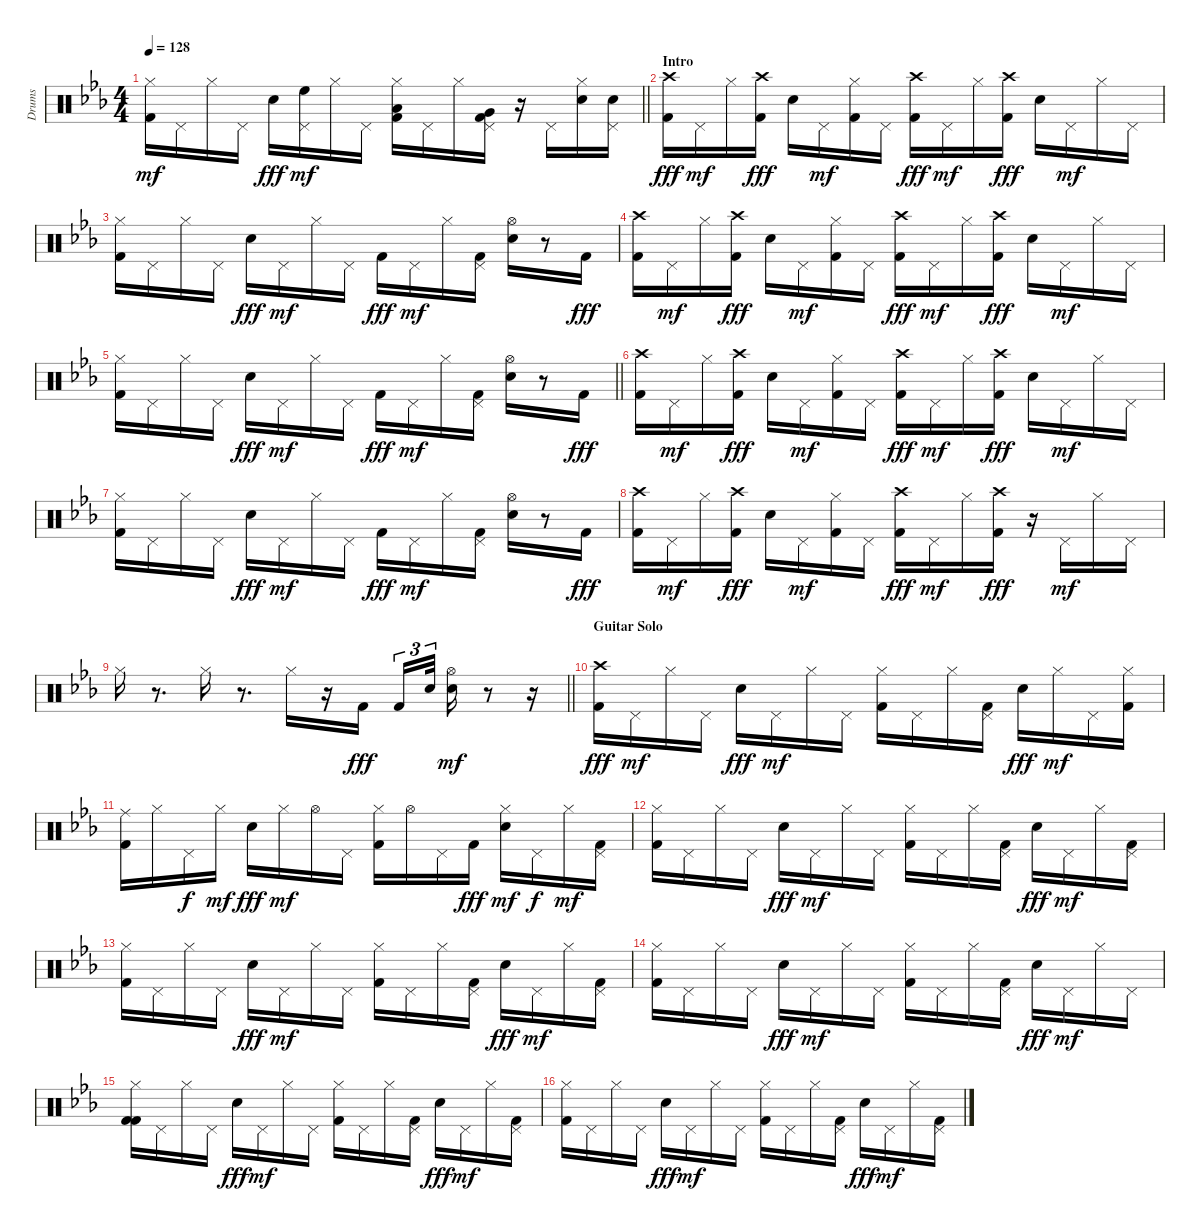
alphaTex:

\track ("Drums" "Drums") {instrument percussion}
\staff {score}
\articulation defaults
\ts (4 4)
\tempo 128
\clef neutral
\barLineRight lightlight
\ks cminor
("Kick (hit) 2" "Hi-Hat (closed)").16{dy mf} "Pedal Hi-Hat (hit)".16 "Hi-Hat (closed)".16 "Pedal Hi-Hat (hit)".16 "Electric Snare (hit)".16{dy fff} ("High Floor Tom (hit)" "Pedal Hi-Hat (hit)").16{dy mf} "Hi-Hat (closed)".16 "Pedal Hi-Hat (hit)".16 ("Kick (hit) 2" "Low Tom (hit)" "Hi-Hat (closed)").16 "Pedal Hi-Hat (hit)".16 "Hi-Hat (closed)".16 ("Very Low Tom (hit)" "Kick (hit) 2" "Pedal Hi-Hat (hit)").16 r.16 "Pedal Hi-Hat (hit)".16 ("Electric Snare (hit)" "Hi-Hat (closed)").16 ("Electric Snare (hit)" "Pedal Hi-Hat (hit)").16 |
\section ("" "Intro")
("Kick (hit) 2" "Crash high (hit)").16{dy fff} "Pedal Hi-Hat (hit)".16{dy mf} "Hi-Hat (closed)".16 ("Kick (hit) 2" "Crash high (hit)").16{dy fff} "Electric Snare (hit)".16 "Pedal Hi-Hat (hit)".16{dy mf} ("Kick (hit) 2" "Hi-Hat (closed)").16 "Pedal Hi-Hat (hit)".16 ("Kick (hit) 2" "Crash high (hit)").16{dy fff} "Pedal Hi-Hat (hit)".16{dy mf} "Hi-Hat (closed)".16 ("Kick (hit) 2" "Crash high (hit)").16{dy fff} "Electric Snare (hit)".16 "Pedal Hi-Hat (hit)".16{dy mf} "Hi-Hat (closed)".16 "Pedal Hi-Hat (hit)".16 |
("Kick (hit) 2" "Hi-Hat (closed)").16 "Pedal Hi-Hat (hit)".16 "Hi-Hat (closed)".16 "Pedal Hi-Hat (hit)".16 "Electric Snare (hit)".16{dy fff} "Pedal Hi-Hat (hit)".16{dy mf} "Hi-Hat (closed)".16 "Pedal Hi-Hat (hit)".16 "Kick (hit) 2".16{dy fff} "Pedal Hi-Hat (hit)".16{dy mf} "Hi-Hat (closed)".16 ("Kick (hit) 2" "Pedal Hi-Hat (hit)").16 ("Electric Snare (hit)" "Hi-Hat (open)").16 r.8 "Kick (hit) 2".16{dy fff} |
("Kick (hit) 2" "Crash high (hit)").16 "Pedal Hi-Hat (hit)".16{dy mf} "Hi-Hat (closed)".16 ("Kick (hit) 2" "Crash high (hit)").16{dy fff} "Electric Snare (hit)".16 "Pedal Hi-Hat (hit)".16{dy mf} ("Kick (hit) 2" "Hi-Hat (closed)").16 "Pedal Hi-Hat (hit)".16 ("Kick (hit) 2" "Crash high (hit)").16{dy fff} "Pedal Hi-Hat (hit)".16{dy mf} "Hi-Hat (closed)".16 ("Kick (hit) 2" "Crash high (hit)").16{dy fff} "Electric Snare (hit)".16 "Pedal Hi-Hat (hit)".16{dy mf} "Hi-Hat (closed)".16 "Pedal Hi-Hat (hit)".16 |
\barLineRight lightlight
("Kick (hit) 2" "Hi-Hat (closed)").16 "Pedal Hi-Hat (hit)".16 "Hi-Hat (closed)".16 "Pedal Hi-Hat (hit)".16 "Electric Snare (hit)".16{dy fff} "Pedal Hi-Hat (hit)".16{dy mf} "Hi-Hat (closed)".16 "Pedal Hi-Hat (hit)".16 "Kick (hit) 2".16{dy fff} "Pedal Hi-Hat (hit)".16{dy mf} "Hi-Hat (closed)".16 ("Kick (hit) 2" "Pedal Hi-Hat (hit)").16 ("Electric Snare (hit)" "Hi-Hat (open)").16 r.8 "Kick (hit) 2".16{dy fff} |
("Kick (hit) 2" "Crash high (hit)").16 "Pedal Hi-Hat (hit)".16{dy mf} "Hi-Hat (closed)".16 ("Kick (hit) 2" "Crash high (hit)").16{dy fff} "Electric Snare (hit)".16 "Pedal Hi-Hat (hit)".16{dy mf} ("Kick (hit) 2" "Hi-Hat (closed)").16 "Pedal Hi-Hat (hit)".16 ("Kick (hit) 2" "Crash high (hit)").16{dy fff} "Pedal Hi-Hat (hit)".16{dy mf} "Hi-Hat (closed)".16 ("Kick (hit) 2" "Crash high (hit)").16{dy fff} "Electric Snare (hit)".16 "Pedal Hi-Hat (hit)".16{dy mf} "Hi-Hat (closed)".16 "Pedal Hi-Hat (hit)".16 |
("Kick (hit) 2" "Hi-Hat (closed)").16 "Pedal Hi-Hat (hit)".16 "Hi-Hat (closed)".16 "Pedal Hi-Hat (hit)".16 "Electric Snare (hit)".16{dy fff} "Pedal Hi-Hat (hit)".16{dy mf} "Hi-Hat (closed)".16 "Pedal Hi-Hat (hit)".16 "Kick (hit) 2".16{dy fff} "Pedal Hi-Hat (hit)".16{dy mf} "Hi-Hat (closed)".16 ("Kick (hit) 2" "Pedal Hi-Hat (hit)").16 ("Electric Snare (hit)" "Hi-Hat (open)").16 r.8 "Kick (hit) 2".16{dy fff} |
("Kick (hit) 2" "Crash high (hit)").16 "Pedal Hi-Hat (hit)".16{dy mf} "Hi-Hat (closed)".16 ("Kick (hit) 2" "Crash high (hit)").16{dy fff} "Electric Snare (hit)".16 "Pedal Hi-Hat (hit)".16{dy mf} ("Kick (hit) 2" "Hi-Hat (closed)").16 "Pedal Hi-Hat (hit)".16 ("Kick (hit) 2" "Crash high (hit)").16{dy fff} "Pedal Hi-Hat (hit)".16{dy mf} "Hi-Hat (closed)".16 ("Kick (hit) 2" "Crash high (hit)").16{dy fff} r.16 "Pedal Hi-Hat (hit)".16{dy mf} "Hi-Hat (closed)".16 "Pedal Hi-Hat (hit)".16 |
\barLineRight lightlight "Hi-Hat (closed)".16
r.8{d} "Hi-Hat (closed)".16 r.8{d} "Hi-Hat (closed)".16 r.16 "Kick (hit) 2".16{dy fff beam splitsecondary} "Kick (hit) 2".16{tu (3 2)} "Electric Snare (hit)".32{tu (3 2)} ("Electric Snare (hit)" "Hi-Hat (open)").16{dy mf} r.8 r.16 |
\section ("" "Guitar Solo")
("Kick (hit) 2" "Crash high (hit)").16{dy fff} "Pedal Hi-Hat (hit)".16{dy mf} "Hi-Hat (closed)".16 "Pedal Hi-Hat (hit)".16 "Electric Snare (hit)".16{dy fff} "Pedal Hi-Hat (hit)".16{dy mf} "Hi-Hat (closed)".16 "Pedal Hi-Hat (hit)".16 ("Kick (hit) 2" "Hi-Hat (closed)").16 "Pedal Hi-Hat (hit)".16 "Hi-Hat (closed)".16 ("Kick (hit) 2" "Pedal Hi-Hat (hit)").16 "Electric Snare (hit)".16{dy fff} "Hi-Hat (closed)".16{dy mf} "Pedal Hi-Hat (hit)".16 ("Kick (hit) 2" "Hi-Hat (closed)").16 |
("Kick (hit) 2" "Ride (middle)").16 "Hi-Hat (closed)".16 "Pedal Hi-Hat (hit)".16{dy f} "Hi-Hat (closed)".16{dy mf} "Electric Snare (hit)".16{dy fff} "Hi-Hat (closed)".16{dy mf} "Hi-Hat (open)".16 "Pedal Hi-Hat (hit)".16 ("Kick (hit) 2" "Hi-Hat (closed)").16 "Hi-Hat (open)".16 "Pedal Hi-Hat (hit)".16 "Kick (hit) 2".16{dy fff} ("Electric Snare (hit)" "Hi-Hat (closed)").16{dy mf} "Pedal Hi-Hat (hit)".16{dy f} "Hi-Hat (closed)".16{dy mf} ("Kick (hit) 2" "Pedal Hi-Hat (hit)").16 |
("Kick (hit) 2" "Hi-Hat (closed)").16 "Pedal Hi-Hat (hit)".16 "Hi-Hat (closed)".16 "Pedal Hi-Hat (hit)".16 "Electric Snare (hit)".16{dy fff} "Pedal Hi-Hat (hit)".16{dy mf} "Hi-Hat (closed)".16 "Pedal Hi-Hat (hit)".16 ("Kick (hit) 2" "Hi-Hat (closed)").16 "Pedal Hi-Hat (hit)".16 "Hi-Hat (closed)".16 ("Kick (hit) 2" "Pedal Hi-Hat (hit)").16 "Electric Snare (hit)".16{dy fff} "Pedal Hi-Hat (hit)".16{dy mf} "Hi-Hat (closed)".16 ("Kick (hit) 2" "Pedal Hi-Hat (hit)").16 |
("Kick (hit) 2" "Hi-Hat (closed)").16 "Pedal Hi-Hat (hit)".16 "Hi-Hat (closed)".16 "Pedal Hi-Hat (hit)".16 "Electric Snare (hit)".16{dy fff} "Pedal Hi-Hat (hit)".16{dy mf} "Hi-Hat (closed)".16 "Pedal Hi-Hat (hit)".16 ("Kick (hit) 2" "Hi-Hat (closed)").16 "Pedal Hi-Hat (hit)".16 "Hi-Hat (closed)".16 ("Kick (hit) 2" "Pedal Hi-Hat (hit)").16 "Electric Snare (hit)".16{dy fff} "Pedal Hi-Hat (hit)".16{dy mf} "Hi-Hat (closed)".16 ("Kick (hit) 2" "Pedal Hi-Hat (hit)").16 |
("Kick (hit) 2" "Hi-Hat (closed)").16 "Pedal Hi-Hat (hit)".16 "Hi-Hat (closed)".16 "Pedal Hi-Hat (hit)".16 "Electric Snare (hit)".16{dy fff} "Pedal Hi-Hat (hit)".16{dy mf} "Hi-Hat (closed)".16 "Pedal Hi-Hat (hit)".16 ("Kick (hit) 2" "Hi-Hat (closed)").16 "Pedal Hi-Hat (hit)".16 "Hi-Hat (closed)".16 ("Kick (hit) 2" "Pedal Hi-Hat (hit)").16 "Electric Snare (hit)".16{dy fff} "Pedal Hi-Hat (hit)".16{dy mf} "Hi-Hat (closed)".16 "Pedal Hi-Hat (hit)".16 |
("Kick (hit) 2" "Kick (hit) 2" "Hi-Hat (closed)").16 "Pedal Hi-Hat (hit)".16 "Hi-Hat (closed)".16 "Pedal Hi-Hat (hit)".16 "Electric Snare (hit)".16{dy fff} "Pedal Hi-Hat (hit)".16{dy mf} "Hi-Hat (closed)".16 "Pedal Hi-Hat (hit)".16 ("Kick (hit) 2" "Hi-Hat (closed)").16 "Pedal Hi-Hat (hit)".16 "Hi-Hat (closed)".16 ("Kick (hit) 2" "Pedal Hi-Hat (hit)").16 "Electric Snare (hit)".16{dy fff} "Pedal Hi-Hat (hit)".16{dy mf} "Hi-Hat (closed)".16 ("Kick (hit) 2" "Pedal Hi-Hat (hit)").16 |
("Kick (hit) 2" "Hi-Hat (closed)").16 "Pedal Hi-Hat (hit)".16 "Hi-Hat (closed)".16 "Pedal Hi-Hat (hit)".16 "Electric Snare (hit)".16{dy fff} "Pedal Hi-Hat (hit)".16{dy mf} "Hi-Hat (closed)".16 "Pedal Hi-Hat (hit)".16 ("Kick (hit) 2" "Hi-Hat (closed)").16 "Pedal Hi-Hat (hit)".16 "Hi-Hat (closed)".16 ("Kick (hit) 2" "Pedal Hi-Hat (hit)").16 "Electric Snare (hit)".16{dy fff} "Pedal Hi-Hat (hit)".16{dy mf} "Hi-Hat (closed)".16 ("Kick (hit) 2" "Pedal Hi-Hat (hit)").16
